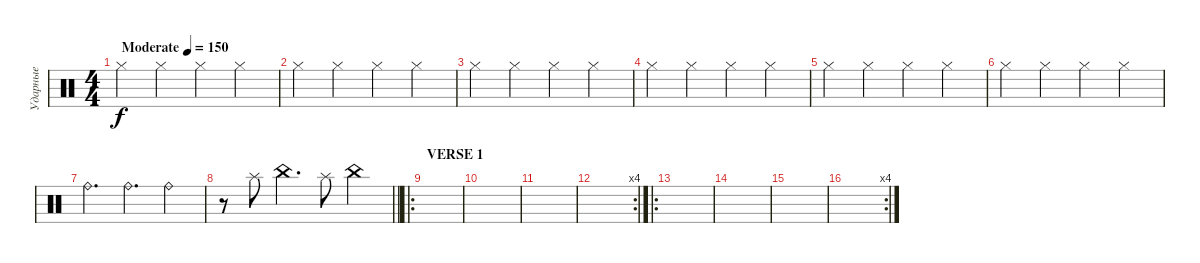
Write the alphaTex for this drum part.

\track ("Ударные" "Ударные") {instrument percussion}
\staff {score}
\articulation defaults
\ts (4 4)
\tempo (150 "Moderate")
\clef neutral
\ks c "Hi-Hat (closed)".4{dy f} "Hi-Hat (closed)".4 "Hi-Hat (closed)".4 "Hi-Hat (closed)".4
|
"Hi-Hat (closed)".4 "Hi-Hat (closed)".4 "Hi-Hat (closed)".4 "Hi-Hat (closed)".4 |
"Hi-Hat (closed)".4 "Hi-Hat (closed)".4 "Hi-Hat (closed)".4 "Hi-Hat (closed)".4 |
"Hi-Hat (closed)".4 "Hi-Hat (closed)".4 "Hi-Hat (closed)".4 "Hi-Hat (closed)".4 |
"Hi-Hat (closed)".4 "Hi-Hat (closed)".4 "Hi-Hat (closed)".4 "Hi-Hat (closed)".4 |
"Hi-Hat (closed)".4 "Hi-Hat (closed)".4 "Hi-Hat (closed)".4 "Hi-Hat (closed)".4 |
"Ride (bell)".4{d} "Ride (bell)".4{d} "Ride (bell)".4 |
\barLineRight lightlight
r.8 "Splash (hit)".8 "China (hit)".4{d} "Splash (hit)".8 "China (hit)".4 |
\ro
\section ("" "VERSE 1")
|
|
|
\rc 4
|
\ro
|
|
|
\rc 4
